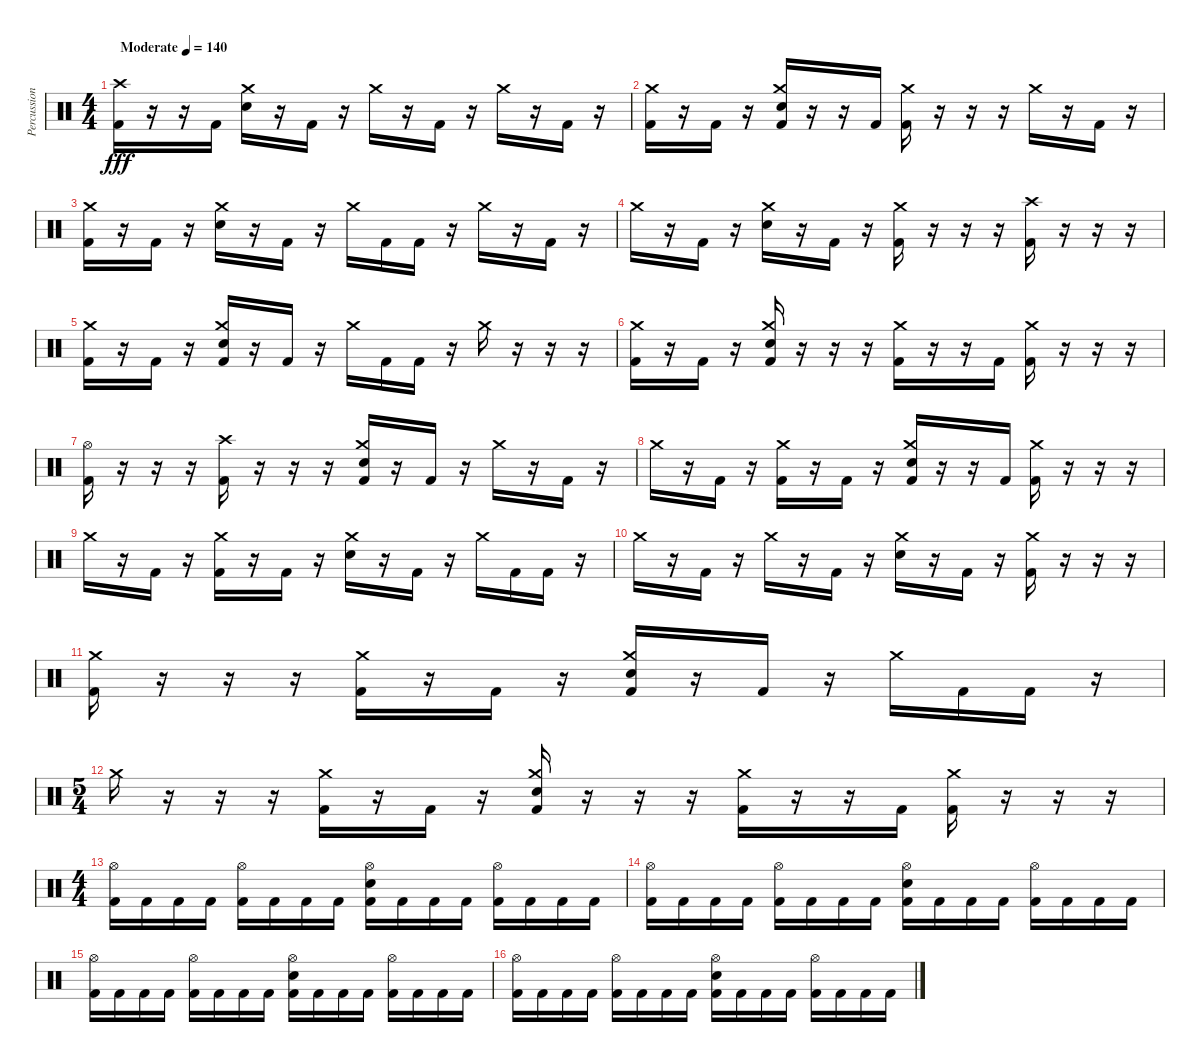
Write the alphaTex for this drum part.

\track ("Percussion" "Percussion") {instrument percussion bank 84}
\staff {score}
\articulation defaults
\ts (4 4)
\tempo (140 "Moderate")
\clef neutral
\ks c
("Crash high (hit)" "Kick (hit) 2").16{dy fff} r.16 r.16 "Kick (hit) 2".16 ("Crash medium (hit)" "Electric Snare (hit)").16 r.16 "Kick (hit) 2".16 r.16 "Crash medium (hit)".16 r.16 "Kick (hit) 2".16 r.16 "Crash medium (hit)".16 r.16 "Kick (hit) 2".16 r.16 |
("Crash medium (hit)" "Kick (hit) 2").16 r.16 "Kick (hit) 2".16 r.16 ("Crash medium (hit)" "Electric Snare (hit)" "Kick (hit) 2").16 r.16 r.16 "Kick (hit) 2".16 ("Crash medium (hit)" "Kick (hit) 2").16 r.16 r.16 r.16 "Crash medium (hit)".16 r.16 "Kick (hit) 2".16 r.16 |
("Crash medium (hit)" "Kick (hit) 2").16 r.16 "Kick (hit) 2".16 r.16 ("Crash medium (hit)" "Electric Snare (hit)").16 r.16 "Kick (hit) 2".16 r.16 "Crash medium (hit)".16 "Kick (hit) 2".16 "Kick (hit) 2".16 r.16 "Crash medium (hit)".16 r.16 "Kick (hit) 2".16 r.16 |
"Crash medium (hit)".16 r.16 "Kick (hit) 2".16 r.16 ("Crash medium (hit)" "Electric Snare (hit)").16 r.16 "Kick (hit) 2".16 r.16 ("Crash medium (hit)" "Kick (hit) 2").16 r.16 r.16 r.16 ("Crash high (hit)" "Kick (hit) 2").16 r.16 r.16 r.16 |
("Crash medium (hit)" "Kick (hit) 2").16 r.16 "Kick (hit) 2".16 r.16 ("Crash medium (hit)" "Electric Snare (hit)" "Kick (hit) 2").16 r.16 "Kick (hit) 2".16 r.16 "Crash medium (hit)".16 "Kick (hit) 2".16 "Kick (hit) 2".16 r.16 "Crash medium (hit)".16 r.16 r.16 r.16 |
("Crash medium (hit)" "Kick (hit) 2").16 r.16 "Kick (hit) 2".16 r.16 ("Crash medium (hit)" "Electric Snare (hit)" "Kick (hit) 2").16 r.16 r.16 r.16 ("Crash medium (hit)" "Kick (hit) 2").16 r.16 r.16 "Kick (hit) 2".16 ("Crash medium (hit)" "Kick (hit) 2").16 r.16 r.16 r.16 |
("Hi-Hat (open)" "Kick (hit) 2").16 r.16 r.16 r.16 ("Crash high (hit)" "Kick (hit) 2").16 r.16 r.16 r.16 ("Crash medium (hit)" "Electric Snare (hit)" "Kick (hit) 2").16 r.16 "Kick (hit) 2".16 r.16 "Crash medium (hit)".16 r.16 "Kick (hit) 2".16 r.16 |
"Crash medium (hit)".16 r.16 "Kick (hit) 2".16 r.16 ("Crash medium (hit)" "Kick (hit) 2").16 r.16 "Kick (hit) 2".16 r.16 ("Crash medium (hit)" "Electric Snare (hit)" "Kick (hit) 2").16 r.16 r.16 "Kick (hit) 2".16 ("Crash medium (hit)" "Kick (hit) 2").16 r.16 r.16 r.16 |
"Crash medium (hit)".16 r.16 "Kick (hit) 2".16 r.16 ("Crash medium (hit)" "Kick (hit) 2").16 r.16 "Kick (hit) 2".16 r.16 ("Crash medium (hit)" "Electric Snare (hit)").16 r.16 "Kick (hit) 2".16 r.16 "Crash medium (hit)".16 "Kick (hit) 2".16 "Kick (hit) 2".16 r.16 |
"Crash medium (hit)".16 r.16 "Kick (hit) 2".16 r.16 "Crash medium (hit)".16 r.16 "Kick (hit) 2".16 r.16 ("Crash medium (hit)" "Electric Snare (hit)").16 r.16 "Kick (hit) 2".16 r.16 ("Crash medium (hit)" "Kick (hit) 2").16 r.16 r.16 r.16 |
("Crash medium (hit)" "Kick (hit) 2").16 r.16 r.16 r.16 ("Crash medium (hit)" "Kick (hit) 2").16 r.16 "Kick (hit) 2".16 r.16 ("Crash medium (hit)" "Electric Snare (hit)" "Kick (hit) 2").16 r.16 "Kick (hit) 2".16 r.16 "Crash medium (hit)".16 "Kick (hit) 2".16 "Kick (hit) 2".16 r.16 |
\ts (5 4)
"Crash medium (hit)".16 r.16 r.16 r.16 ("Crash medium (hit)" "Kick (hit) 2").16 r.16 "Kick (hit) 2".16 r.16 ("Crash medium (hit)" "Electric Snare (hit)" "Kick (hit) 2").16 r.16 r.16 r.16 ("Crash medium (hit)" "Kick (hit) 2").16 r.16 r.16 "Kick (hit) 2".16 ("Crash medium (hit)" "Kick (hit) 2").16 r.16 r.16 r.16 |
\ts (4 4)
("Hi-Hat (open)" "Kick (hit) 2").16 "Kick (hit) 2".16 "Kick (hit) 2".16 "Kick (hit) 2".16 ("Hi-Hat (open)" "Kick (hit) 2").16 "Kick (hit) 2".16 "Kick (hit) 2".16 "Kick (hit) 2".16 ("Hi-Hat (open)" "Electric Snare (hit)" "Kick (hit) 2").16 "Kick (hit) 2".16 "Kick (hit) 2".16 "Kick (hit) 2".16 ("Hi-Hat (open)" "Kick (hit) 2").16 "Kick (hit) 2".16 "Kick (hit) 2".16 "Kick (hit) 2".16 |
("Hi-Hat (open)" "Kick (hit) 2").16 "Kick (hit) 2".16 "Kick (hit) 2".16 "Kick (hit) 2".16 ("Hi-Hat (open)" "Kick (hit) 2").16 "Kick (hit) 2".16 "Kick (hit) 2".16 "Kick (hit) 2".16 ("Hi-Hat (open)" "Electric Snare (hit)" "Kick (hit) 2").16 "Kick (hit) 2".16 "Kick (hit) 2".16 "Kick (hit) 2".16 ("Hi-Hat (open)" "Kick (hit) 2").16 "Kick (hit) 2".16 "Kick (hit) 2".16 "Kick (hit) 2".16 |
("Hi-Hat (open)" "Kick (hit) 2").16 "Kick (hit) 2".16 "Kick (hit) 2".16 "Kick (hit) 2".16 ("Hi-Hat (open)" "Kick (hit) 2").16 "Kick (hit) 2".16 "Kick (hit) 2".16 "Kick (hit) 2".16 ("Hi-Hat (open)" "Electric Snare (hit)" "Kick (hit) 2").16 "Kick (hit) 2".16 "Kick (hit) 2".16 "Kick (hit) 2".16 ("Hi-Hat (open)" "Kick (hit) 2").16 "Kick (hit) 2".16 "Kick (hit) 2".16 "Kick (hit) 2".16 |
("Hi-Hat (open)" "Kick (hit) 2").16 "Kick (hit) 2".16 "Kick (hit) 2".16 "Kick (hit) 2".16 ("Hi-Hat (open)" "Kick (hit) 2").16 "Kick (hit) 2".16 "Kick (hit) 2".16 "Kick (hit) 2".16 ("Hi-Hat (open)" "Electric Snare (hit)" "Kick (hit) 2").16 "Kick (hit) 2".16 "Kick (hit) 2".16 "Kick (hit) 2".16 ("Hi-Hat (open)" "Kick (hit) 2").16 "Kick (hit) 2".16 "Kick (hit) 2".16 "Kick (hit) 2".16
